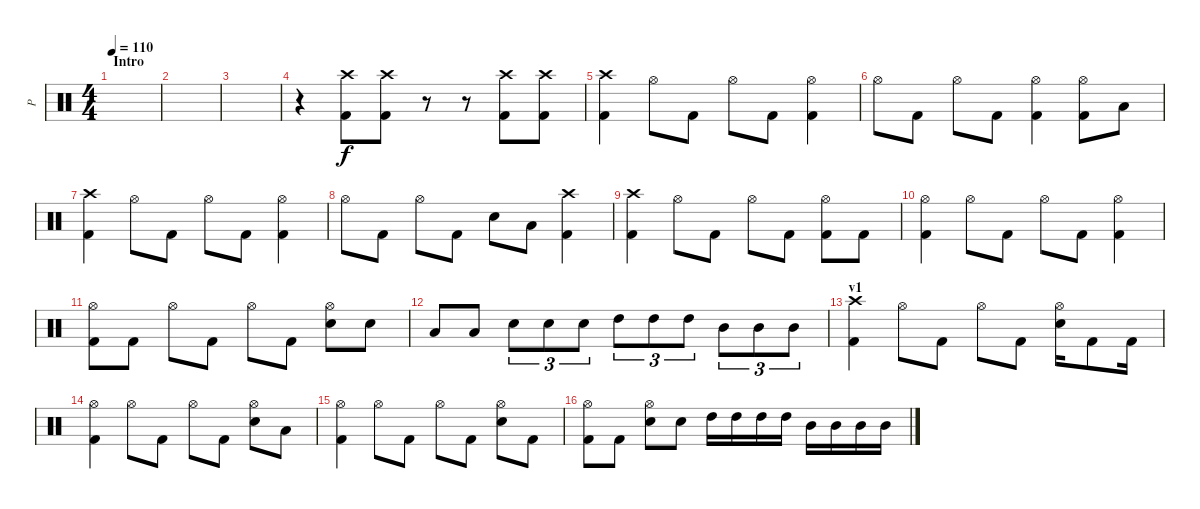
\track ("P" "P") {instrument percussion}
\staff {score}
\articulation defaults
\ts (4 4)
\section ("" "Intro")
\tempo 110
\clef neutral
\ks c
|
|
|
r.4 ("Crash high (hit)" "Kick (hit) 2").8 ("Crash high (hit)" "Kick (hit) 2").8 r.8 r.8 ("Crash high (hit)" "Kick (hit) 2").8 ("Crash high (hit)" "Kick (hit) 2").8 |
("Crash high (hit)" "Kick (hit) 2").4 "Hi-Hat (open)".8 "Kick (hit) 2".8 "Hi-Hat (open)".8 "Kick (hit) 2".8 ("Hi-Hat (open)" "Kick (hit) 2").4 |
"Hi-Hat (open)".8 "Kick (hit) 2".8 "Hi-Hat (open)".8 "Kick (hit) 2".8 ("Hi-Hat (open)" "Kick (hit) 2").4 ("Hi-Hat (open)" "Kick (hit) 2").8 "Low Tom (hit)".8 |
("Crash high (hit)" "Kick (hit) 2").4 "Hi-Hat (open)".8 "Kick (hit) 2".8 "Hi-Hat (open)".8 "Kick (hit) 2".8 ("Hi-Hat (open)" "Kick (hit) 2").4 |
"Hi-Hat (open)".8 "Kick (hit) 2".8 "Hi-Hat (open)".8 "Kick (hit) 2".8 "Electric Snare (hit)".8 "Low Tom (hit)".8 ("Crash high (hit)" "Kick (hit) 2").4 |
("Crash high (hit)" "Kick (hit) 2").4 "Hi-Hat (open)".8 "Kick (hit) 2".8 "Hi-Hat (open)".8 "Kick (hit) 2".8 ("Hi-Hat (open)" "Kick (hit) 2").8 "Kick (hit) 2".8 |
("Hi-Hat (open)" "Kick (hit) 2").4 "Hi-Hat (open)".8 "Kick (hit) 2".8 "Hi-Hat (open)".8 "Kick (hit) 2".8 ("Hi-Hat (open)" "Kick (hit) 2").4 |
("Hi-Hat (open)" "Kick (hit) 2").8 "Kick (hit) 2".8 "Hi-Hat (open)".8 "Kick (hit) 2".8 "Hi-Hat (open)".8 "Kick (hit) 2".8 ("Hi-Hat (open)" "Electric Snare (hit)").8 "Electric Snare (hit)".8 |
"Low Tom (hit)".8 "Low Tom (hit)".8 "Electric Snare (hit)".8{tu (3 2)} "Electric Snare (hit)".8{tu (3 2)} "Electric Snare (hit)".8{tu (3 2)} "High Tom (hit)".8{tu (3 2)} "High Tom (hit)".8{tu (3 2)} "High Tom (hit)".8{tu (3 2)} "Mid Tom (hit)".8{tu (3 2)} "Mid Tom (hit)".8{tu (3 2)} "Mid Tom (hit)".8{tu (3 2)} |
\section ("" "v1")
("Crash high (hit)" "Kick (hit) 2").4 "Hi-Hat (open)".8 "Kick (hit) 2".8 "Hi-Hat (open)".8 "Kick (hit) 2".8 ("Hi-Hat (open)" "Electric Snare (hit)").16 "Kick (hit) 2".8 "Kick (hit) 2".16 |
("Hi-Hat (open)" "Kick (hit) 2").4 "Hi-Hat (open)".8 "Kick (hit) 2".8 "Hi-Hat (open)".8 "Kick (hit) 2".8 ("Hi-Hat (open)" "Electric Snare (hit)").8 "Low Tom (hit)".8 |
("Hi-Hat (open)" "Kick (hit) 2").4 "Hi-Hat (open)".8 "Kick (hit) 2".8 "Hi-Hat (open)".8 "Kick (hit) 2".8 ("Hi-Hat (open)" "Electric Snare (hit)").8 "Kick (hit) 2".8 |
("Hi-Hat (open)" "Kick (hit) 2").8 "Kick (hit) 2".8 ("Hi-Hat (open)" "Electric Snare (hit)").8 "Electric Snare (hit)".8 "High Tom (hit)".16 "High Tom (hit)".16 "High Tom (hit)".16 "High Tom (hit)".16 "Mid Tom (hit)".16 "Mid Tom (hit)".16 "Mid Tom (hit)".16 "Mid Tom (hit)".16
